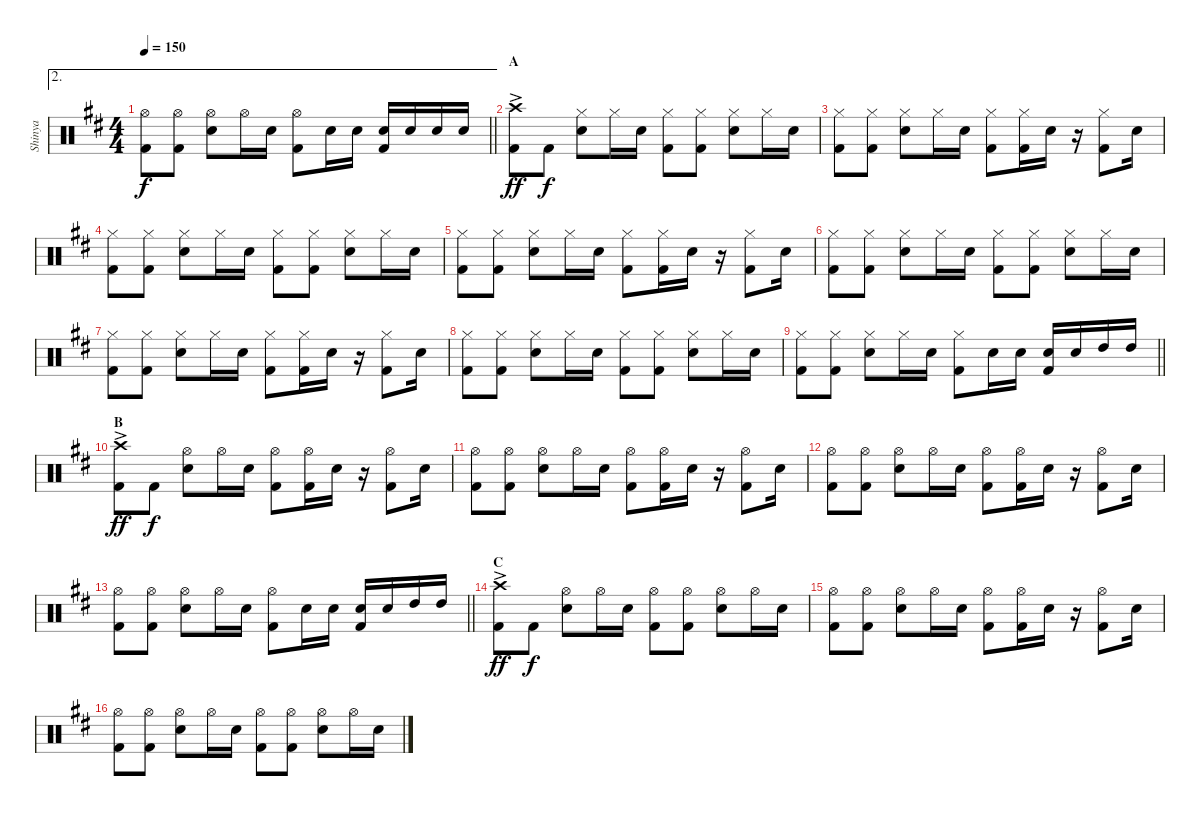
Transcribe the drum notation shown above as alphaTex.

\track ("Shinya" "Shinya") {instrument percussion}
\staff {score}
\articulation defaults
\ae 2
\ts (4 4)
\tempo 150
\clef neutral
\barLineRight lightlight
\ks d
("Hi-Hat (open)" "Kick (hit) 2").8{dy f} ("Hi-Hat (open)" "Kick (hit) 2").8 ("Hi-Hat (open)" "Snare (hit) 2").8 "Hi-Hat (open)".16 "Snare (hit) 2".16 ("Hi-Hat (open)" "Kick (hit) 2").8 "Snare (hit) 2".16 "Snare (hit) 2".16 ("Snare (hit) 2" "Kick (hit) 2").16 "Snare (hit) 2".16 "Snare (hit) 2".16 "Snare (hit) 2".16 |
\section ("" "A")
("Crash high (hit)"{ac} "Kick (hit) 2").8{dy ff} "Kick (hit) 2".8{dy f} ("Hi-Hat (closed)" "Snare (hit) 2").8 "Hi-Hat (closed)".16 "Snare (hit) 2".16 ("Hi-Hat (closed)" "Kick (hit) 2").8 ("Hi-Hat (closed)" "Kick (hit) 2").8 ("Hi-Hat (closed)" "Snare (hit) 2").8 "Hi-Hat (closed)".16 "Snare (hit) 2".16 |
("Hi-Hat (closed)" "Kick (hit) 2").8 ("Hi-Hat (closed)" "Kick (hit) 2").8 ("Hi-Hat (closed)" "Snare (hit) 2").8 "Hi-Hat (closed)".16 "Snare (hit) 2".16 ("Hi-Hat (closed)" "Kick (hit) 2").8 ("Hi-Hat (closed)" "Kick (hit) 2").16 "Snare (hit) 2".16 r.16 ("Hi-Hat (closed)" "Kick (hit) 2").8 "Snare (hit) 2".16 |
("Hi-Hat (closed)" "Kick (hit) 2").8 ("Hi-Hat (closed)" "Kick (hit) 2").8 ("Hi-Hat (closed)" "Snare (hit) 2").8 "Hi-Hat (closed)".16 "Snare (hit) 2".16 ("Hi-Hat (closed)" "Kick (hit) 2").8 ("Hi-Hat (closed)" "Kick (hit) 2").8 ("Hi-Hat (closed)" "Snare (hit) 2").8 "Hi-Hat (closed)".16 "Snare (hit) 2".16 |
("Hi-Hat (closed)" "Kick (hit) 2").8 ("Hi-Hat (closed)" "Kick (hit) 2").8 ("Hi-Hat (closed)" "Snare (hit) 2").8 "Hi-Hat (closed)".16 "Snare (hit) 2".16 ("Hi-Hat (closed)" "Kick (hit) 2").8 ("Hi-Hat (closed)" "Kick (hit) 2").16 "Snare (hit) 2".16 r.16 ("Hi-Hat (closed)" "Kick (hit) 2").8 "Snare (hit) 2".16 |
("Hi-Hat (closed)" "Kick (hit) 2").8 ("Hi-Hat (closed)" "Kick (hit) 2").8 ("Hi-Hat (closed)" "Snare (hit) 2").8 "Hi-Hat (closed)".16 "Snare (hit) 2".16 ("Hi-Hat (closed)" "Kick (hit) 2").8 ("Hi-Hat (closed)" "Kick (hit) 2").8 ("Hi-Hat (closed)" "Snare (hit) 2").8 "Hi-Hat (closed)".16 "Snare (hit) 2".16 |
("Hi-Hat (closed)" "Kick (hit) 2").8 ("Hi-Hat (closed)" "Kick (hit) 2").8 ("Hi-Hat (closed)" "Snare (hit) 2").8 "Hi-Hat (closed)".16 "Snare (hit) 2".16 ("Hi-Hat (closed)" "Kick (hit) 2").8 ("Hi-Hat (closed)" "Kick (hit) 2").16 "Snare (hit) 2".16 r.16 ("Hi-Hat (closed)" "Kick (hit) 2").8 "Snare (hit) 2".16 |
("Hi-Hat (closed)" "Kick (hit) 2").8 ("Hi-Hat (closed)" "Kick (hit) 2").8 ("Hi-Hat (closed)" "Snare (hit) 2").8 "Hi-Hat (closed)".16 "Snare (hit) 2".16 ("Hi-Hat (closed)" "Kick (hit) 2").8 ("Hi-Hat (closed)" "Kick (hit) 2").8 ("Hi-Hat (closed)" "Snare (hit) 2").8 "Hi-Hat (closed)".16 "Snare (hit) 2".16 |
\barLineRight lightlight
("Hi-Hat (closed)" "Kick (hit) 2").8 ("Hi-Hat (closed)" "Kick (hit) 2").8 ("Hi-Hat (closed)" "Snare (hit) 2").8 "Hi-Hat (closed)".16 "Snare (hit) 2".16 ("Hi-Hat (closed)" "Kick (hit) 2").8 "Snare (hit) 2".16 "Snare (hit) 2".16 ("Snare (hit) 2" "Kick (hit) 2").16 "Snare (hit) 2".16 "High Tom (hit)".16 "High Tom (hit)".16 |
\section ("" "B")
("Crash high (hit)"{ac} "Kick (hit) 2").8{dy ff} "Kick (hit) 2".8{dy f} ("Hi-Hat (open)" "Snare (hit) 2").8 "Hi-Hat (open)".16 "Snare (hit) 2".16 ("Hi-Hat (open)" "Kick (hit) 2").8 ("Hi-Hat (open)" "Kick (hit) 2").16 "Snare (hit) 2".16 r.16 ("Hi-Hat (open)" "Kick (hit) 2").8 "Snare (hit) 2".16 |
("Hi-Hat (open)" "Kick (hit) 2").8 ("Hi-Hat (open)" "Kick (hit) 2").8 ("Hi-Hat (open)" "Snare (hit) 2").8 "Hi-Hat (open)".16 "Snare (hit) 2".16 ("Hi-Hat (open)" "Kick (hit) 2").8 ("Hi-Hat (open)" "Kick (hit) 2").16 "Snare (hit) 2".16 r.16 ("Hi-Hat (open)" "Kick (hit) 2").8 "Snare (hit) 2".16 |
("Hi-Hat (open)" "Kick (hit) 2").8 ("Hi-Hat (open)" "Kick (hit) 2").8 ("Hi-Hat (open)" "Snare (hit) 2").8 "Hi-Hat (open)".16 "Snare (hit) 2".16 ("Hi-Hat (open)" "Kick (hit) 2").8 ("Hi-Hat (open)" "Kick (hit) 2").16 "Snare (hit) 2".16 r.16 ("Hi-Hat (open)" "Kick (hit) 2").8 "Snare (hit) 2".16 |
\barLineRight lightlight
("Hi-Hat (open)" "Kick (hit) 2").8 ("Hi-Hat (open)" "Kick (hit) 2").8 ("Hi-Hat (open)" "Snare (hit) 2").8 "Hi-Hat (open)".16 "Snare (hit) 2".16 ("Hi-Hat (open)" "Kick (hit) 2").8 "Snare (hit) 2".16 "Snare (hit) 2".16 ("Snare (hit) 2" "Kick (hit) 2").16 "Snare (hit) 2".16 "High Tom (hit)".16 "High Tom (hit)".16 |
\section ("" "C")
("Crash high (hit)"{ac} "Kick (hit) 2").8{dy ff} "Kick (hit) 2".8{dy f} ("Hi-Hat (open)" "Snare (hit) 2").8 "Hi-Hat (open)".16 "Snare (hit) 2".16 ("Hi-Hat (open)" "Kick (hit) 2").8 ("Hi-Hat (open)" "Kick (hit) 2").8 ("Hi-Hat (open)" "Snare (hit) 2").8 "Hi-Hat (open)".16 "Snare (hit) 2".16 |
("Hi-Hat (open)" "Kick (hit) 2").8 ("Hi-Hat (open)" "Kick (hit) 2").8 ("Hi-Hat (open)" "Snare (hit) 2").8 "Hi-Hat (open)".16 "Snare (hit) 2".16 ("Hi-Hat (open)" "Kick (hit) 2").8 ("Hi-Hat (open)" "Kick (hit) 2").16 "Snare (hit) 2".16 r.16 ("Hi-Hat (open)" "Kick (hit) 2").8 "Snare (hit) 2".16 |
("Hi-Hat (open)" "Kick (hit) 2").8 ("Hi-Hat (open)" "Kick (hit) 2").8 ("Hi-Hat (open)" "Snare (hit) 2").8 "Hi-Hat (open)".16 "Snare (hit) 2".16 ("Hi-Hat (open)" "Kick (hit) 2").8 ("Hi-Hat (open)" "Kick (hit) 2").8 ("Hi-Hat (open)" "Snare (hit) 2").8 "Hi-Hat (open)".16 "Snare (hit) 2".16
